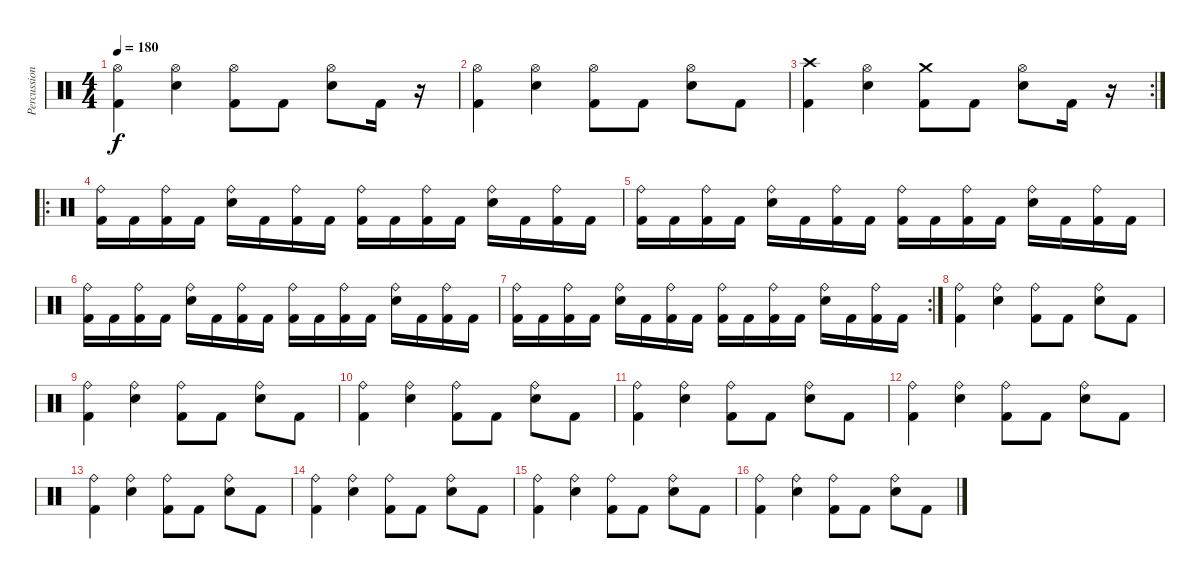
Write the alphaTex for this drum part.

\track ("Percussion" "Percussion") {instrument percussion}
\staff {score}
\articulation defaults
\ts (4 4)
\tempo 180
\clef neutral
\ks c
("Kick (hit) 2" "Hi-Hat (open)").4{dy f} ("Snare (hit) 2" "Hi-Hat (open)").4 ("Kick (hit) 2" "Hi-Hat (open)").8 "Kick (hit) 2".8 ("Snare (hit) 2" "Hi-Hat (open)").8 "Kick (hit) 2".16 r.16 |
("Kick (hit) 2" "Hi-Hat (open)").4 ("Snare (hit) 2" "Hi-Hat (open)").4 ("Kick (hit) 2" "Hi-Hat (open)").8 "Kick (hit) 2".8 ("Snare (hit) 2" "Hi-Hat (open)").8 "Kick (hit) 2".8 |
\rc 2
("Kick (hit) 2" "Crash high (hit)").4 ("Snare (hit) 2" "Hi-Hat (open)").4 ("Kick (hit) 2" "Crash medium (hit)").8 "Kick (hit) 2".8 ("Snare (hit) 2" "Hi-Hat (open)").8 "Kick (hit) 2".16 r.16 |
\ro
("Kick (hit) 2" "Ride (bell)").16 "Kick (hit) 2".16 ("Kick (hit) 2" "Ride (bell)").16 "Kick (hit) 2".16 ("Snare (hit) 2" "Ride (bell)").16 "Kick (hit) 2".16 ("Kick (hit) 2" "Ride (bell)").16 "Kick (hit) 2".16 ("Kick (hit) 2" "Ride (bell)").16 "Kick (hit) 2".16 ("Kick (hit) 2" "Ride (bell)").16 "Kick (hit) 2".16 ("Snare (hit) 2" "Ride (bell)").16 "Kick (hit) 2".16 ("Kick (hit) 2" "Ride (bell)").16 "Kick (hit) 2".16 |
("Kick (hit) 2" "Ride (bell)").16 "Kick (hit) 2".16 ("Kick (hit) 2" "Ride (bell)").16 "Kick (hit) 2".16 ("Snare (hit) 2" "Ride (bell)").16 "Kick (hit) 2".16 ("Kick (hit) 2" "Ride (bell)").16 "Kick (hit) 2".16 ("Kick (hit) 2" "Ride (bell)").16 "Kick (hit) 2".16 ("Kick (hit) 2" "Ride (bell)").16 "Kick (hit) 2".16 ("Snare (hit) 2" "Ride (bell)").16 "Kick (hit) 2".16 ("Kick (hit) 2" "Ride (bell)").16 "Kick (hit) 2".16 |
("Kick (hit) 2" "Ride (bell)").16 "Kick (hit) 2".16 ("Kick (hit) 2" "Ride (bell)").16 "Kick (hit) 2".16 ("Snare (hit) 2" "Ride (bell)").16 "Kick (hit) 2".16 ("Kick (hit) 2" "Ride (bell)").16 "Kick (hit) 2".16 ("Kick (hit) 2" "Ride (bell)").16 "Kick (hit) 2".16 ("Kick (hit) 2" "Ride (bell)").16 "Kick (hit) 2".16 ("Snare (hit) 2" "Ride (bell)").16 "Kick (hit) 2".16 ("Kick (hit) 2" "Ride (bell)").16 "Kick (hit) 2".16 |
\rc 2
("Kick (hit) 2" "Ride (bell)").16 "Kick (hit) 2".16 ("Kick (hit) 2" "Ride (bell)").16 "Kick (hit) 2".16 ("Snare (hit) 2" "Ride (bell)").16 "Kick (hit) 2".16 ("Kick (hit) 2" "Ride (bell)").16 "Kick (hit) 2".16 ("Kick (hit) 2" "Ride (bell)").16 "Kick (hit) 2".16 ("Kick (hit) 2" "Ride (bell)").16 "Kick (hit) 2".16 ("Snare (hit) 2" "Ride (bell)").16 "Kick (hit) 2".16 ("Kick (hit) 2" "Ride (bell)").16 "Kick (hit) 2".16 |
("Kick (hit) 2" "Ride (bell)").4 ("Snare (hit) 2" "Ride (bell)").4 ("Kick (hit) 2" "Ride (bell)").8 "Kick (hit) 2".8 ("Snare (hit) 2" "Ride (bell)").8 "Kick (hit) 2".8 |
("Kick (hit) 2" "Ride (bell)").4 ("Snare (hit) 2" "Ride (bell)").4 ("Kick (hit) 2" "Ride (bell)").8 "Kick (hit) 2".8 ("Snare (hit) 2" "Ride (bell)").8 "Kick (hit) 2".8 |
("Kick (hit) 2" "Ride (bell)").4 ("Snare (hit) 2" "Ride (bell)").4 ("Kick (hit) 2" "Ride (bell)").8 "Kick (hit) 2".8 ("Snare (hit) 2" "Ride (bell)").8 "Kick (hit) 2".8 |
("Kick (hit) 2" "Ride (bell)").4 ("Snare (hit) 2" "Ride (bell)").4 ("Kick (hit) 2" "Ride (bell)").8 "Kick (hit) 2".8 ("Snare (hit) 2" "Ride (bell)").8 "Kick (hit) 2".8 |
("Kick (hit) 2" "Ride (bell)").4 ("Snare (hit) 2" "Ride (bell)").4 ("Kick (hit) 2" "Ride (bell)").8 "Kick (hit) 2".8 ("Snare (hit) 2" "Ride (bell)").8 "Kick (hit) 2".8 |
("Kick (hit) 2" "Ride (bell)").4 ("Snare (hit) 2" "Ride (bell)").4 ("Kick (hit) 2" "Ride (bell)").8 "Kick (hit) 2".8 ("Snare (hit) 2" "Ride (bell)").8 "Kick (hit) 2".8 |
("Kick (hit) 2" "Ride (bell)").4 ("Snare (hit) 2" "Ride (bell)").4 ("Kick (hit) 2" "Ride (bell)").8 "Kick (hit) 2".8 ("Snare (hit) 2" "Ride (bell)").8 "Kick (hit) 2".8 |
("Kick (hit) 2" "Ride (bell)").4 ("Snare (hit) 2" "Ride (bell)").4 ("Kick (hit) 2" "Ride (bell)").8 "Kick (hit) 2".8 ("Snare (hit) 2" "Ride (bell)").8 "Kick (hit) 2".8 |
("Kick (hit) 2" "Ride (bell)").4 ("Snare (hit) 2" "Ride (bell)").4 ("Kick (hit) 2" "Ride (bell)").8 "Kick (hit) 2".8 ("Snare (hit) 2" "Ride (bell)").8 "Kick (hit) 2".8
